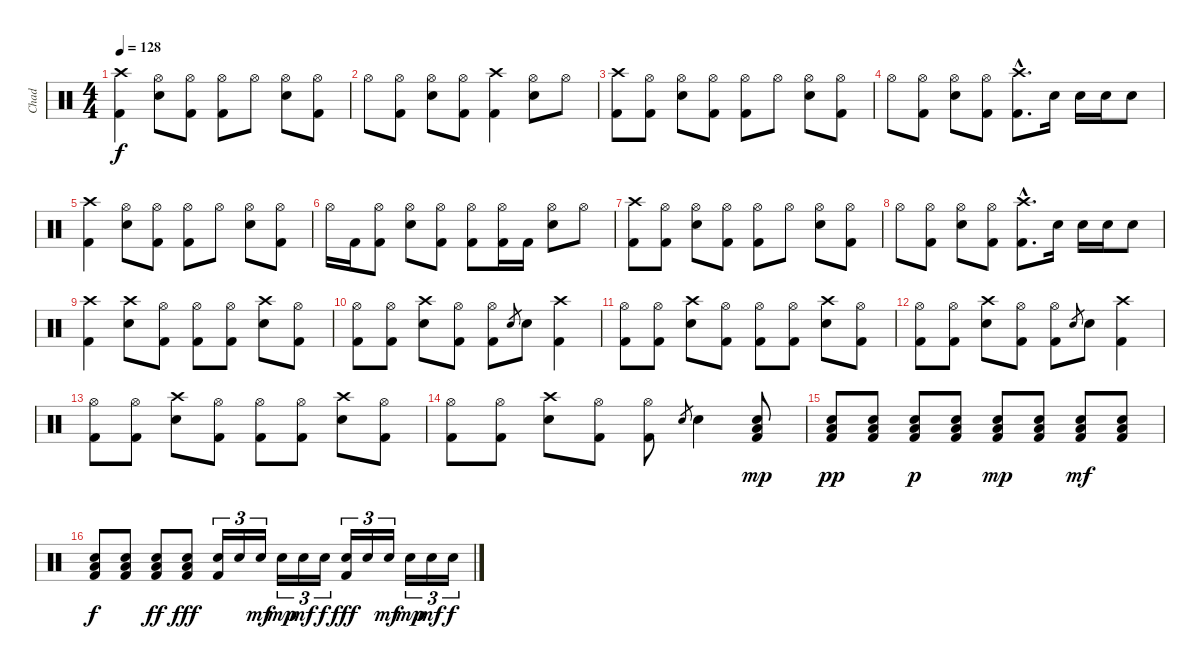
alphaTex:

\track ("Chad" "Chad") {instrument percussion}
\staff {score}
\articulation defaults
\ts (4 4)
\tempo 128
\clef neutral
\ks c
("Crash high (hit)" "Kick (hit) 2").4{dy f} ("Hi-Hat (open)" "Snare (hit) 2").8 ("Hi-Hat (open)" "Kick (hit) 2").8 ("Hi-Hat (open)" "Kick (hit) 2").8 "Hi-Hat (open)".8 ("Hi-Hat (open)" "Snare (hit) 2").8 ("Hi-Hat (open)" "Kick (hit) 2").8 |
"Hi-Hat (open)".8 ("Hi-Hat (open)" "Kick (hit) 2").8 ("Hi-Hat (open)" "Snare (hit) 2").8 ("Hi-Hat (open)" "Kick (hit) 2").8 ("Crash high (hit)" "Kick (hit) 2").4 ("Hi-Hat (open)" "Snare (hit) 2").8 "Hi-Hat (open)".8 |
("Crash high (hit)" "Kick (hit) 2").8 ("Hi-Hat (open)" "Kick (hit) 2").8 ("Hi-Hat (open)" "Snare (hit) 2").8 ("Hi-Hat (open)" "Kick (hit) 2").8 ("Hi-Hat (open)" "Kick (hit) 2").8 "Hi-Hat (open)".8 ("Hi-Hat (open)" "Snare (hit) 2").8 ("Hi-Hat (open)" "Kick (hit) 2").8 |
"Hi-Hat (open)".8 ("Hi-Hat (open)" "Kick (hit) 2").8 ("Hi-Hat (open)" "Snare (hit) 2").8 ("Hi-Hat (open)" "Kick (hit) 2").8 ("Crash high (hit)"{hac} "Kick (hit) 2"{hac}).8{d} "Snare (hit) 2".16 "Snare (hit) 2".16 "Snare (hit) 2".16 "Snare (hit) 2".8 |
("Crash high (hit)" "Kick (hit) 2").4 ("Hi-Hat (open)" "Snare (hit) 2").8 ("Hi-Hat (open)" "Kick (hit) 2").8 ("Hi-Hat (open)" "Kick (hit) 2").8 "Hi-Hat (open)".8 ("Hi-Hat (open)" "Snare (hit) 2").8 ("Hi-Hat (open)" "Kick (hit) 2").8 |
"Hi-Hat (open)".16 "Kick (hit) 2".16 ("Hi-Hat (open)" "Kick (hit) 2").8 ("Hi-Hat (open)" "Snare (hit) 2").8 ("Hi-Hat (open)" "Kick (hit) 2").8 ("Hi-Hat (open)" "Kick (hit) 2").8 ("Hi-Hat (open)" "Kick (hit) 2").16 "Kick (hit) 2".16 ("Hi-Hat (open)" "Snare (hit) 2").8 "Hi-Hat (open)".8 |
("Crash high (hit)" "Kick (hit) 2").8 ("Hi-Hat (open)" "Kick (hit) 2").8 ("Hi-Hat (open)" "Snare (hit) 2").8 ("Hi-Hat (open)" "Kick (hit) 2").8 ("Hi-Hat (open)" "Kick (hit) 2").8 "Hi-Hat (open)".8 ("Hi-Hat (open)" "Snare (hit) 2").8 ("Hi-Hat (open)" "Kick (hit) 2").8 |
"Hi-Hat (open)".8 ("Hi-Hat (open)" "Kick (hit) 2").8 ("Hi-Hat (open)" "Snare (hit) 2").8 ("Hi-Hat (open)" "Kick (hit) 2").8 ("Crash high (hit)"{hac} "Kick (hit) 2"{hac}).8{d} "Snare (hit) 2".16 "Snare (hit) 2".16 "Snare (hit) 2".16 "Snare (hit) 2".8 |
("Crash high (hit)" "Kick (hit) 2").4 ("Crash high (hit)" "Snare (hit) 2").8 ("Hi-Hat (open)" "Kick (hit) 2").8 ("Hi-Hat (open)" "Kick (hit) 2").8 ("Hi-Hat (open)" "Kick (hit) 2").8 ("Crash high (hit)" "Snare (hit) 2").8 ("Hi-Hat (open)" "Kick (hit) 2").8 |
("Hi-Hat (open)" "Kick (hit) 2").8 ("Hi-Hat (open)" "Kick (hit) 2").8 ("Crash high (hit)" "Snare (hit) 2").8 ("Hi-Hat (open)" "Kick (hit) 2").8 ("Hi-Hat (open)" "Kick (hit) 2").8 "Snare (hit) 2".8{gr} "Snare (hit) 2".8 ("Crash high (hit)" "Kick (hit) 2").4 |
("Hi-Hat (open)" "Kick (hit) 2").8 ("Hi-Hat (open)" "Kick (hit) 2").8 ("Crash high (hit)" "Snare (hit) 2").8 ("Hi-Hat (open)" "Kick (hit) 2").8 ("Hi-Hat (open)" "Kick (hit) 2").8 ("Hi-Hat (open)" "Kick (hit) 2").8 ("Crash high (hit)" "Snare (hit) 2").8 ("Hi-Hat (open)" "Kick (hit) 2").8 |
("Hi-Hat (open)" "Kick (hit) 2").8 ("Hi-Hat (open)" "Kick (hit) 2").8 ("Crash high (hit)" "Snare (hit) 2").8 ("Hi-Hat (open)" "Kick (hit) 2").8 ("Hi-Hat (open)" "Kick (hit) 2").8 "Snare (hit) 2".8{gr} "Snare (hit) 2".8 ("Crash high (hit)" "Kick (hit) 2").4 |
("Hi-Hat (open)" "Kick (hit) 2").8 ("Hi-Hat (open)" "Kick (hit) 2").8 ("Crash high (hit)" "Snare (hit) 2").8 ("Hi-Hat (open)" "Kick (hit) 2").8 ("Hi-Hat (open)" "Kick (hit) 2").8 ("Hi-Hat (open)" "Kick (hit) 2").8 ("Crash high (hit)" "Snare (hit) 2").8 ("Hi-Hat (open)" "Kick (hit) 2").8 |
("Hi-Hat (open)" "Kick (hit) 2").8 ("Hi-Hat (open)" "Kick (hit) 2").8 ("Crash high (hit)" "Snare (hit) 2").8 ("Hi-Hat (open)" "Kick (hit) 2").8 ("Hi-Hat (open)" "Kick (hit) 2").8 "Snare (hit) 2".8{gr} "Snare (hit) 2".4 ("Low Tom (hit)" "Snare (hit) 2" "Kick (hit) 2").8{dy mp} |
("Low Tom (hit)" "Snare (hit) 2" "Kick (hit) 2").8{dy pp} ("Low Tom (hit)" "Snare (hit) 2" "Kick (hit) 2").8 ("Low Tom (hit)" "Snare (hit) 2" "Kick (hit) 2").8{dy p} ("Low Tom (hit)" "Snare (hit) 2" "Kick (hit) 2").8 ("Low Tom (hit)" "Snare (hit) 2" "Kick (hit) 2").8{dy mp} ("Low Tom (hit)" "Snare (hit) 2" "Kick (hit) 2").8 ("Low Tom (hit)" "Snare (hit) 2" "Kick (hit) 2").8{dy mf} ("Low Tom (hit)" "Snare (hit) 2" "Kick (hit) 2").8 |
("Low Tom (hit)" "Snare (hit) 2" "Kick (hit) 2").8{dy f} ("Low Tom (hit)" "Snare (hit) 2" "Kick (hit) 2").8 ("Low Tom (hit)" "Snare (hit) 2" "Kick (hit) 2").8{dy ff} ("Low Tom (hit)" "Snare (hit) 2" "Kick (hit) 2").8{dy fff} ("Snare (hit) 2" "Kick (hit) 2").16{tu (3 2)} "Snare (hit) 2".16{tu (3 2)} "Snare (hit) 2".16{tu (3 2) dy mf} "Snare (hit) 2".16{tu (3 2) dy mp} "Snare (hit) 2".16{tu (3 2) dy mf} "Snare (hit) 2".16{tu (3 2) dy f} ("Snare (hit) 2" "Kick (hit) 2").16{tu (3 2) dy fff} "Snare (hit) 2".16{tu (3 2)} "Snare (hit) 2".16{tu (3 2) dy mf} "Snare (hit) 2".16{tu (3 2) dy mp} "Snare (hit) 2".16{tu (3 2) dy mf} "Snare (hit) 2".16{tu (3 2) dy f}
